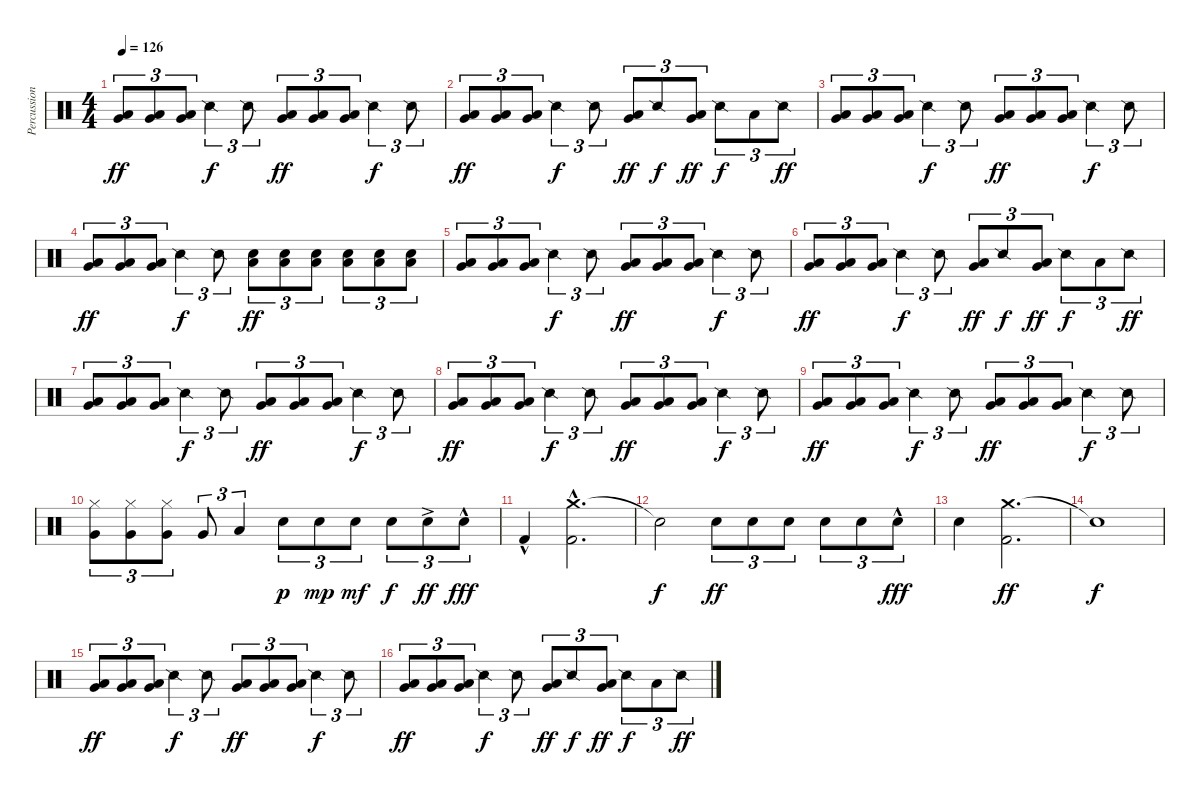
\track ("Percussion" "Percussion") {instrument percussion}
\staff {score}
\articulation defaults
\ts (4 4)
\tempo 126
\clef neutral
\ks c
("Very Low Tom (hit)" "Low Floor Tom (hit)").8{tu (3 2) dy ff} ("Very Low Tom (hit)" "Low Floor Tom (hit)").8{tu (3 2)} ("Very Low Tom (hit)" "Low Floor Tom (hit)").8{tu (3 2)} "Snare (side stick) 2".4{tu (3 2) dy f} "Snare (side stick) 2".8{tu (3 2)} ("Very Low Tom (hit)" "Low Floor Tom (hit)").8{tu (3 2) dy ff} ("Very Low Tom (hit)" "Low Floor Tom (hit)").8{tu (3 2)} ("Very Low Tom (hit)" "Low Floor Tom (hit)").8{tu (3 2)} "Snare (side stick) 2".4{tu (3 2) dy f} "Snare (side stick) 2".8{tu (3 2)} |
("Very Low Tom (hit)" "Low Floor Tom (hit)").8{tu (3 2) dy ff} ("Very Low Tom (hit)" "Low Floor Tom (hit)").8{tu (3 2)} ("Very Low Tom (hit)" "Low Floor Tom (hit)").8{tu (3 2)} "Snare (side stick) 2".4{tu (3 2) dy f} "Snare (side stick) 2".8{tu (3 2)} ("Very Low Tom (hit)" "Low Floor Tom (hit)").8{tu (3 2) dy ff} "Snare (side stick) 2".8{tu (3 2) dy f} ("Very Low Tom (hit)" "Low Floor Tom (hit)").8{tu (3 2) dy ff} "Snare (side stick) 2".8{tu (3 2) dy f} "Low Floor Tom (hit)".8{tu (3 2)} "Snare (side stick) 2".8{tu (3 2) dy ff} |
("Very Low Tom (hit)" "Low Floor Tom (hit)").8{tu (3 2)} ("Very Low Tom (hit)" "Low Floor Tom (hit)").8{tu (3 2)} ("Very Low Tom (hit)" "Low Floor Tom (hit)").8{tu (3 2)} "Snare (side stick) 2".4{tu (3 2) dy f} "Snare (side stick) 2".8{tu (3 2)} ("Very Low Tom (hit)" "Low Floor Tom (hit)").8{tu (3 2) dy ff} ("Very Low Tom (hit)" "Low Floor Tom (hit)").8{tu (3 2)} ("Very Low Tom (hit)" "Low Floor Tom (hit)").8{tu (3 2)} "Snare (side stick) 2".4{tu (3 2) dy f} "Snare (side stick) 2".8{tu (3 2)} |
("Very Low Tom (hit)" "Low Floor Tom (hit)").8{tu (3 2) dy ff} ("Very Low Tom (hit)" "Low Floor Tom (hit)").8{tu (3 2)} ("Very Low Tom (hit)" "Low Floor Tom (hit)").8{tu (3 2)} "Snare (side stick) 2".4{tu (3 2) dy f} "Snare (side stick) 2".8{tu (3 2)} ("Electric Snare (hit)" "Low Floor Tom (hit)").8{tu (3 2) dy ff} ("Electric Snare (hit)" "Low Floor Tom (hit)").8{tu (3 2)} ("Electric Snare (hit)" "Low Floor Tom (hit)").8{tu (3 2)} ("Electric Snare (hit)" "Low Floor Tom (hit)").8{tu (3 2)} ("Electric Snare (hit)" "Low Floor Tom (hit)").8{tu (3 2)} ("Electric Snare (hit)" "Low Floor Tom (hit)").8{tu (3 2)} |
("Very Low Tom (hit)" "Low Floor Tom (hit)").8{tu (3 2)} ("Very Low Tom (hit)" "Low Floor Tom (hit)").8{tu (3 2)} ("Very Low Tom (hit)" "Low Floor Tom (hit)").8{tu (3 2)} "Snare (side stick) 2".4{tu (3 2) dy f} "Snare (side stick) 2".8{tu (3 2)} ("Very Low Tom (hit)" "Low Floor Tom (hit)").8{tu (3 2) dy ff} ("Very Low Tom (hit)" "Low Floor Tom (hit)").8{tu (3 2)} ("Very Low Tom (hit)" "Low Floor Tom (hit)").8{tu (3 2)} "Snare (side stick) 2".4{tu (3 2) dy f} "Snare (side stick) 2".8{tu (3 2)} |
("Very Low Tom (hit)" "Low Floor Tom (hit)").8{tu (3 2) dy ff} ("Very Low Tom (hit)" "Low Floor Tom (hit)").8{tu (3 2)} ("Very Low Tom (hit)" "Low Floor Tom (hit)").8{tu (3 2)} "Snare (side stick) 2".4{tu (3 2) dy f} "Snare (side stick) 2".8{tu (3 2)} ("Very Low Tom (hit)" "Low Floor Tom (hit)").8{tu (3 2) dy ff} "Snare (side stick) 2".8{tu (3 2) dy f} ("Very Low Tom (hit)" "Low Floor Tom (hit)").8{tu (3 2) dy ff} "Snare (side stick) 2".8{tu (3 2) dy f} "Low Floor Tom (hit)".8{tu (3 2)} "Snare (side stick) 2".8{tu (3 2) dy ff} |
("Very Low Tom (hit)" "Low Floor Tom (hit)").8{tu (3 2)} ("Very Low Tom (hit)" "Low Floor Tom (hit)").8{tu (3 2)} ("Very Low Tom (hit)" "Low Floor Tom (hit)").8{tu (3 2)} "Snare (side stick) 2".4{tu (3 2) dy f} "Snare (side stick) 2".8{tu (3 2)} ("Very Low Tom (hit)" "Low Floor Tom (hit)").8{tu (3 2) dy ff} ("Very Low Tom (hit)" "Low Floor Tom (hit)").8{tu (3 2)} ("Very Low Tom (hit)" "Low Floor Tom (hit)").8{tu (3 2)} "Snare (side stick) 2".4{tu (3 2) dy f} "Snare (side stick) 2".8{tu (3 2)} |
("Very Low Tom (hit)" "Low Floor Tom (hit)").8{tu (3 2) dy ff} ("Very Low Tom (hit)" "Low Floor Tom (hit)").8{tu (3 2)} ("Very Low Tom (hit)" "Low Floor Tom (hit)").8{tu (3 2)} "Snare (side stick) 2".4{tu (3 2) dy f} "Snare (side stick) 2".8{tu (3 2)} ("Very Low Tom (hit)" "Low Floor Tom (hit)").8{tu (3 2) dy ff} ("Very Low Tom (hit)" "Low Floor Tom (hit)").8{tu (3 2)} ("Very Low Tom (hit)" "Low Floor Tom (hit)").8{tu (3 2)} "Snare (side stick) 2".4{tu (3 2) dy f} "Snare (side stick) 2".8{tu (3 2)} |
("Very Low Tom (hit)" "Low Floor Tom (hit)").8{tu (3 2) dy ff} ("Very Low Tom (hit)" "Low Floor Tom (hit)").8{tu (3 2)} ("Very Low Tom (hit)" "Low Floor Tom (hit)").8{tu (3 2)} "Snare (side stick) 2".4{tu (3 2) dy f} "Snare (side stick) 2".8{tu (3 2)} ("Very Low Tom (hit)" "Low Floor Tom (hit)").8{tu (3 2) dy ff} ("Very Low Tom (hit)" "Low Floor Tom (hit)").8{tu (3 2)} ("Very Low Tom (hit)" "Low Floor Tom (hit)").8{tu (3 2)} "Snare (side stick) 2".4{tu (3 2) dy f} "Snare (side stick) 2".8{tu (3 2)} |
("Hi-Hat (closed)" "Very Low Tom (hit)").8{tu (3 2)} ("Hi-Hat (closed)" "Very Low Tom (hit)").8{tu (3 2)} ("Hi-Hat (closed)" "Very Low Tom (hit)").8{tu (3 2)} "Very Low Tom (hit)".8{tu (3 2)} "Low Floor Tom (hit)".4{tu (3 2)} "Electric Snare (hit)".8{tu (3 2) dy p} "Electric Snare (hit)".8{tu (3 2) dy mp} "Electric Snare (hit)".8{tu (3 2) dy mf} "Electric Snare (hit)".8{tu (3 2) dy f} "Electric Snare (hit)"{ac}.8{tu (3 2) dy ff} "Electric Snare (hit)"{hac}.8{tu (3 2) dy fff} |
"Kick (hit) 2"{hac}.4 ("Crash medium (hit)"{hac} "Kick (hit) 2"{hac}).2{d} |
"Snare (hit)"{t}.2{dy f} "Electric Snare (hit)".8{tu (3 2) dy ff} "Electric Snare (hit)".8{tu (3 2)} "Electric Snare (hit)".8{tu (3 2)} "Electric Snare (hit)".8{tu (3 2)} "Electric Snare (hit)".8{tu (3 2)} "Electric Snare (hit)"{hac}.8{tu (3 2) dy fff} |
"Electric Snare (hit)".4 ("Crash medium (hit)" "Kick (hit) 2").2{d dy ff} |
"Snare (hit)"{t}.1{dy f} |
("Very Low Tom (hit)" "Low Floor Tom (hit)").8{tu (3 2) dy ff} ("Very Low Tom (hit)" "Low Floor Tom (hit)").8{tu (3 2)} ("Very Low Tom (hit)" "Low Floor Tom (hit)").8{tu (3 2)} "Snare (side stick) 2".4{tu (3 2) dy f} "Snare (side stick) 2".8{tu (3 2)} ("Very Low Tom (hit)" "Low Floor Tom (hit)").8{tu (3 2) dy ff} ("Very Low Tom (hit)" "Low Floor Tom (hit)").8{tu (3 2)} ("Very Low Tom (hit)" "Low Floor Tom (hit)").8{tu (3 2)} "Snare (side stick) 2".4{tu (3 2) dy f} "Snare (side stick) 2".8{tu (3 2)} |
("Very Low Tom (hit)" "Low Floor Tom (hit)").8{tu (3 2) dy ff} ("Very Low Tom (hit)" "Low Floor Tom (hit)").8{tu (3 2)} ("Very Low Tom (hit)" "Low Floor Tom (hit)").8{tu (3 2)} "Snare (side stick) 2".4{tu (3 2) dy f} "Snare (side stick) 2".8{tu (3 2)} ("Very Low Tom (hit)" "Low Floor Tom (hit)").8{tu (3 2) dy ff} "Snare (side stick) 2".8{tu (3 2) dy f} ("Very Low Tom (hit)" "Low Floor Tom (hit)").8{tu (3 2) dy ff} "Snare (side stick) 2".8{tu (3 2) dy f} "Low Floor Tom (hit)".8{tu (3 2)} "Snare (side stick) 2".8{tu (3 2) dy ff}
